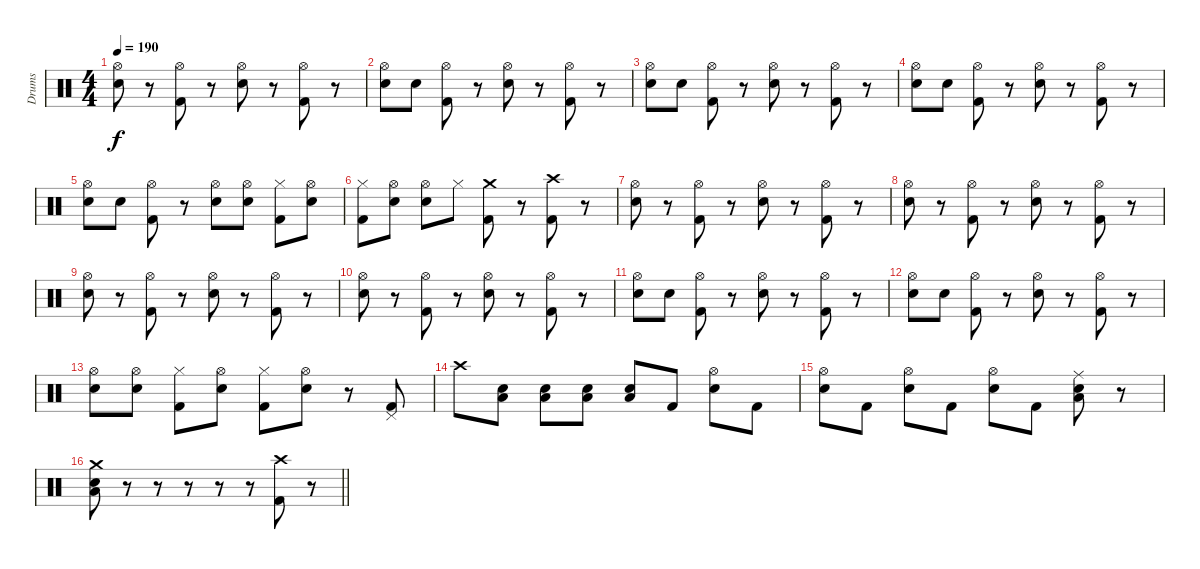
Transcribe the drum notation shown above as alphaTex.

\track ("Drums" "Drums") {instrument percussion}
\staff {score}
\articulation defaults
\ts (4 4)
\tempo 190
\clef neutral
\ks c
("Snare (hit) 2" "Hi-Hat (open)").8{dy f} r.8 ("Kick (hit) 2" "Hi-Hat (open)").8 r.8 ("Snare (hit) 2" "Hi-Hat (open)").8 r.8 ("Kick (hit) 2" "Hi-Hat (open)").8 r.8 |
("Snare (hit) 2" "Hi-Hat (open)").8 "Snare (hit) 2".8 ("Kick (hit) 2" "Hi-Hat (open)").8 r.8 ("Snare (hit) 2" "Hi-Hat (open)").8 r.8 ("Kick (hit) 2" "Hi-Hat (open)").8 r.8 |
("Snare (hit) 2" "Hi-Hat (open)").8 "Snare (hit) 2".8 ("Kick (hit) 2" "Hi-Hat (open)").8 r.8 ("Snare (hit) 2" "Hi-Hat (open)").8 r.8 ("Kick (hit) 2" "Hi-Hat (open)").8 r.8 |
("Snare (hit) 2" "Hi-Hat (open)").8 "Snare (hit) 2".8 ("Kick (hit) 2" "Hi-Hat (open)").8 r.8 ("Snare (hit) 2" "Hi-Hat (open)").8 r.8 ("Kick (hit) 2" "Hi-Hat (open)").8 r.8 |
("Snare (hit) 2" "Hi-Hat (open)").8 "Snare (hit) 2".8 ("Kick (hit) 2" "Hi-Hat (open)").8 r.8 ("Snare (hit) 2" "Hi-Hat (open)").8 ("Snare (hit) 2" "Hi-Hat (open)").8 ("Kick (hit) 2" "Hi-Hat (closed)").8 ("Snare (hit) 2" "Hi-Hat (open)").8 |
("Kick (hit) 2" "Hi-Hat (closed)").8 ("Snare (hit) 2" "Hi-Hat (open)").8 ("Snare (hit) 2" "Hi-Hat (open)").8 "Hi-Hat (closed)".8 ("Kick (hit) 2" "Crash medium (hit)").8 r.8 ("Kick (hit) 2" "Crash high (hit)").8 r.8 |
("Snare (hit) 2" "Hi-Hat (open)").8 r.8 ("Kick (hit) 2" "Hi-Hat (open)").8 r.8 ("Snare (hit) 2" "Hi-Hat (open)").8 r.8 ("Kick (hit) 2" "Hi-Hat (open)").8 r.8 |
("Snare (hit) 2" "Hi-Hat (open)").8 r.8 ("Kick (hit) 2" "Hi-Hat (open)").8 r.8 ("Snare (hit) 2" "Hi-Hat (open)").8 r.8 ("Kick (hit) 2" "Hi-Hat (open)").8 r.8 |
("Snare (hit) 2" "Hi-Hat (open)").8 r.8 ("Kick (hit) 2" "Hi-Hat (open)").8 r.8 ("Snare (hit) 2" "Hi-Hat (open)").8 r.8 ("Kick (hit) 2" "Hi-Hat (open)").8 r.8 |
("Snare (hit) 2" "Hi-Hat (open)").8 r.8 ("Kick (hit) 2" "Hi-Hat (open)").8 r.8 ("Snare (hit) 2" "Hi-Hat (open)").8 r.8 ("Kick (hit) 2" "Hi-Hat (open)").8 r.8 |
("Snare (hit) 2" "Hi-Hat (open)").8 "Snare (hit) 2".8 ("Kick (hit) 2" "Hi-Hat (open)").8 r.8 ("Snare (hit) 2" "Hi-Hat (open)").8 r.8 ("Kick (hit) 2" "Hi-Hat (open)").8 r.8 |
("Snare (hit) 2" "Hi-Hat (open)").8 "Snare (hit) 2".8 ("Kick (hit) 2" "Hi-Hat (open)").8 r.8 ("Snare (hit) 2" "Hi-Hat (open)").8 r.8 ("Kick (hit) 2" "Hi-Hat (open)").8 r.8 |
("Snare (hit) 2" "Hi-Hat (open)").8 ("Snare (hit) 2" "Hi-Hat (open)").8 ("Kick (hit) 2" "Hi-Hat (closed)").8 ("Snare (hit) 2" "Hi-Hat (open)").8 ("Kick (hit) 2" "Hi-Hat (closed)").8 ("Snare (hit) 2" "Hi-Hat (open)").8 r.8 ("Kick (hit) 2" "Pedal Hi-Hat (hit)").8 |
"Crash high (hit)".8 ("Snare (hit) 2" "Low Floor Tom (hit)").8 ("Snare (hit) 2" "Low Floor Tom (hit)").8 ("Snare (hit) 2" "Low Floor Tom (hit)").8 ("Snare (hit) 2" "Low Floor Tom (hit)").8 "Kick (hit) 2".8 ("Snare (hit) 2" "Hi-Hat (open)").8 "Kick (hit) 2".8 |
("Snare (hit) 2" "Hi-Hat (open)").8 "Kick (hit) 2".8 ("Snare (hit) 2" "Hi-Hat (open)").8 "Kick (hit) 2".8 ("Snare (hit) 2" "Hi-Hat (open)").8 "Kick (hit) 2".8 ("Low Floor Tom (hit)" "Snare (hit) 2" "Ride (middle)").8 r.8 |
\barLineRight lightlight
("Low Floor Tom (hit)" "Snare (hit) 2" "Crash medium (hit)").8 r.8 r.8 r.8 r.8 r.8 ("Kick (hit) 2" "Crash high (hit)").8 r.8
